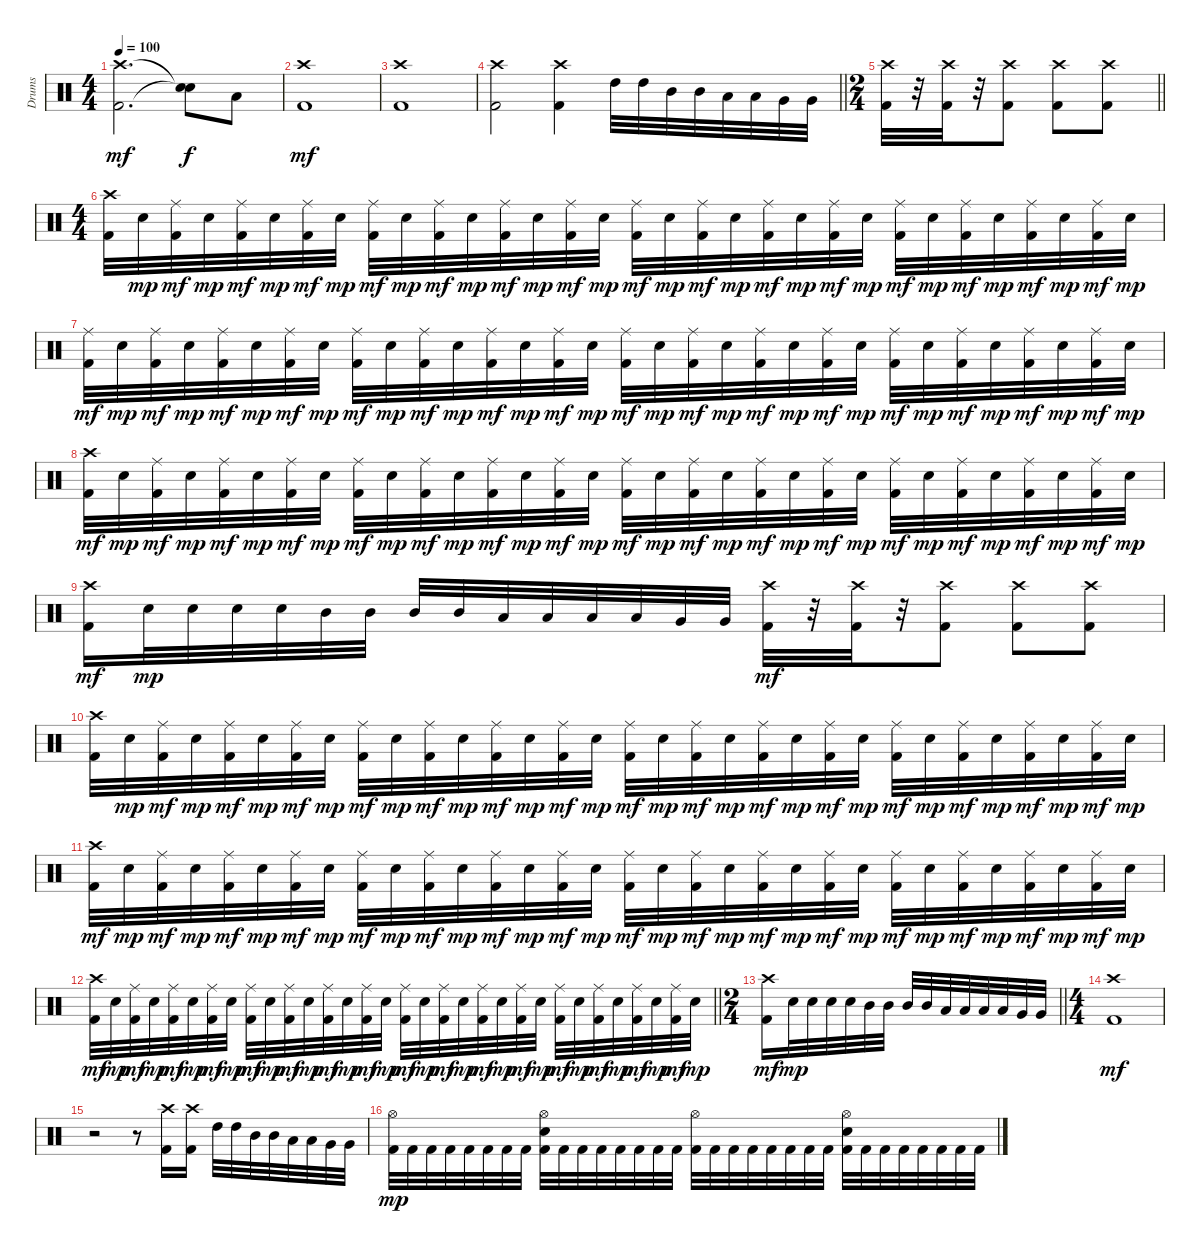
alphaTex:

\track ("Drums" "Drums") {instrument percussion}
\staff {score}
\articulation defaults
\ts (4 4)
\tempo 100
\clef neutral
\ks c
("Crash high (hit)" "Kick (hit) 2").2{d dy mf} ("Snare (hit)"{t} "Snare (hit)"{t}).8{dy f} "Low Tom (hit)".8 |
("Crash high (hit)" "Kick (hit) 2").1{dy mf} |
("Crash high (hit)" "Kick (hit) 2").1 |
\barLineRight lightlight
("Crash high (hit)" "Kick (hit) 2").2 ("Crash high (hit)" "Kick (hit) 2").4 "High Tom (hit)".32 "High Tom (hit)".32 "Mid Tom (hit)".32 "Mid Tom (hit)".32 "Low Tom (hit)".32 "Low Tom (hit)".32 "Very Low Tom (hit)".32 "Very Low Tom (hit)".32 |
\ts (2 4)
\barLineRight lightlight
("Crash high (hit)" "Kick (hit) 2").32 r.32 ("Crash high (hit)" "Kick (hit) 2").32 r.32 ("Crash high (hit)" "Kick (hit) 2").8 ("Crash high (hit)" "Kick (hit) 2").8 ("Crash high (hit)" "Kick (hit) 2").8 |
\ts (4 4)
("Crash high (hit)" "Kick (hit) 2").32 "Snare (hit) 2".32{dy mp} ("Ride (middle)" "Kick (hit) 2").32{dy mf} "Snare (hit) 2".32{dy mp} ("Ride (middle)" "Kick (hit) 2").32{dy mf} "Snare (hit) 2".32{dy mp} ("Ride (middle)" "Kick (hit) 2").32{dy mf} "Snare (hit) 2".32{dy mp} ("Ride (middle)" "Kick (hit) 2").32{dy mf} "Snare (hit) 2".32{dy mp} ("Ride (middle)" "Kick (hit) 2").32{dy mf} "Snare (hit) 2".32{dy mp} ("Ride (middle)" "Kick (hit) 2").32{dy mf} "Snare (hit) 2".32{dy mp} ("Ride (middle)" "Kick (hit) 2").32{dy mf} "Snare (hit) 2".32{dy mp} ("Ride (middle)" "Kick (hit) 2").32{dy mf} "Snare (hit) 2".32{dy mp} ("Ride (middle)" "Kick (hit) 2").32{dy mf} "Snare (hit) 2".32{dy mp} ("Ride (middle)" "Kick (hit) 2").32{dy mf} "Snare (hit) 2".32{dy mp} ("Ride (middle)" "Kick (hit) 2").32{dy mf} "Snare (hit) 2".32{dy mp} ("Ride (middle)" "Kick (hit) 2").32{dy mf} "Snare (hit) 2".32{dy mp} ("Ride (middle)" "Kick (hit) 2").32{dy mf} "Snare (hit) 2".32{dy mp} ("Ride (middle)" "Kick (hit) 2").32{dy mf} "Snare (hit) 2".32{dy mp} ("Ride (middle)" "Kick (hit) 2").32{dy mf} "Snare (hit) 2".32{dy mp} |
("Ride (middle)" "Kick (hit) 2").32{dy mf} "Snare (hit) 2".32{dy mp} ("Ride (middle)" "Kick (hit) 2").32{dy mf} "Snare (hit) 2".32{dy mp} ("Ride (middle)" "Kick (hit) 2").32{dy mf} "Snare (hit) 2".32{dy mp} ("Ride (middle)" "Kick (hit) 2").32{dy mf} "Snare (hit) 2".32{dy mp} ("Ride (middle)" "Kick (hit) 2").32{dy mf} "Snare (hit) 2".32{dy mp} ("Ride (middle)" "Kick (hit) 2").32{dy mf} "Snare (hit) 2".32{dy mp} ("Ride (middle)" "Kick (hit) 2").32{dy mf} "Snare (hit) 2".32{dy mp} ("Ride (middle)" "Kick (hit) 2").32{dy mf} "Snare (hit) 2".32{dy mp} ("Ride (middle)" "Kick (hit) 2").32{dy mf} "Snare (hit) 2".32{dy mp} ("Ride (middle)" "Kick (hit) 2").32{dy mf} "Snare (hit) 2".32{dy mp} ("Ride (middle)" "Kick (hit) 2").32{dy mf} "Snare (hit) 2".32{dy mp} ("Ride (middle)" "Kick (hit) 2").32{dy mf} "Snare (hit) 2".32{dy mp} ("Ride (middle)" "Kick (hit) 2").32{dy mf} "Snare (hit) 2".32{dy mp} ("Ride (middle)" "Kick (hit) 2").32{dy mf} "Snare (hit) 2".32{dy mp} ("Ride (middle)" "Kick (hit) 2").32{dy mf} "Snare (hit) 2".32{dy mp} ("Ride (middle)" "Kick (hit) 2").32{dy mf} "Snare (hit) 2".32{dy mp} |
("Crash high (hit)" "Kick (hit) 2").32{dy mf} "Snare (hit) 2".32{dy mp} ("Ride (middle)" "Kick (hit) 2").32{dy mf} "Snare (hit) 2".32{dy mp} ("Ride (middle)" "Kick (hit) 2").32{dy mf} "Snare (hit) 2".32{dy mp} ("Ride (middle)" "Kick (hit) 2").32{dy mf} "Snare (hit) 2".32{dy mp} ("Ride (middle)" "Kick (hit) 2").32{dy mf} "Snare (hit) 2".32{dy mp} ("Ride (middle)" "Kick (hit) 2").32{dy mf} "Snare (hit) 2".32{dy mp} ("Ride (middle)" "Kick (hit) 2").32{dy mf} "Snare (hit) 2".32{dy mp} ("Ride (middle)" "Kick (hit) 2").32{dy mf} "Snare (hit) 2".32{dy mp} ("Ride (middle)" "Kick (hit) 2").32{dy mf} "Snare (hit) 2".32{dy mp} ("Ride (middle)" "Kick (hit) 2").32{dy mf} "Snare (hit) 2".32{dy mp} ("Ride (middle)" "Kick (hit) 2").32{dy mf} "Snare (hit) 2".32{dy mp} ("Ride (middle)" "Kick (hit) 2").32{dy mf} "Snare (hit) 2".32{dy mp} ("Ride (middle)" "Kick (hit) 2").32{dy mf} "Snare (hit) 2".32{dy mp} ("Ride (middle)" "Kick (hit) 2").32{dy mf} "Snare (hit) 2".32{dy mp} ("Ride (middle)" "Kick (hit) 2").32{dy mf} "Snare (hit) 2".32{dy mp} ("Ride (middle)" "Kick (hit) 2").32{dy mf} "Snare (hit) 2".32{dy mp} |
("Crash high (hit)" "Kick (hit) 2").16{dy mf} "Snare (hit) 2".32{dy mp} "Snare (hit) 2".32 "Snare (hit) 2".32 "Snare (hit) 2".32 "Mid Tom (hit)".32 "Mid Tom (hit)".32 "Mid Tom (hit)".32 "Mid Tom (hit)".32 "Low Tom (hit)".32 "Low Tom (hit)".32 "Low Tom (hit)".32 "Low Tom (hit)".32 "Very Low Tom (hit)".32 "Very Low Tom (hit)".32 ("Crash high (hit)" "Kick (hit) 2").32{dy mf} r.32 ("Crash high (hit)" "Kick (hit) 2").32 r.32 ("Crash high (hit)" "Kick (hit) 2").8 ("Crash high (hit)" "Kick (hit) 2").8 ("Crash high (hit)" "Kick (hit) 2").8 |
("Crash high (hit)" "Kick (hit) 2").32 "Snare (hit) 2".32{dy mp} ("Ride (middle)" "Kick (hit) 2").32{dy mf} "Snare (hit) 2".32{dy mp} ("Ride (middle)" "Kick (hit) 2").32{dy mf} "Snare (hit) 2".32{dy mp} ("Ride (middle)" "Kick (hit) 2").32{dy mf} "Snare (hit) 2".32{dy mp} ("Ride (middle)" "Kick (hit) 2").32{dy mf} "Snare (hit) 2".32{dy mp} ("Ride (middle)" "Kick (hit) 2").32{dy mf} "Snare (hit) 2".32{dy mp} ("Ride (middle)" "Kick (hit) 2").32{dy mf} "Snare (hit) 2".32{dy mp} ("Ride (middle)" "Kick (hit) 2").32{dy mf} "Snare (hit) 2".32{dy mp} ("Ride (middle)" "Kick (hit) 2").32{dy mf} "Snare (hit) 2".32{dy mp} ("Ride (middle)" "Kick (hit) 2").32{dy mf} "Snare (hit) 2".32{dy mp} ("Ride (middle)" "Kick (hit) 2").32{dy mf} "Snare (hit) 2".32{dy mp} ("Ride (middle)" "Kick (hit) 2").32{dy mf} "Snare (hit) 2".32{dy mp} ("Ride (middle)" "Kick (hit) 2").32{dy mf} "Snare (hit) 2".32{dy mp} ("Ride (middle)" "Kick (hit) 2").32{dy mf} "Snare (hit) 2".32{dy mp} ("Ride (middle)" "Kick (hit) 2").32{dy mf} "Snare (hit) 2".32{dy mp} ("Ride (middle)" "Kick (hit) 2").32{dy mf} "Snare (hit) 2".32{dy mp} |
("Crash high (hit)" "Kick (hit) 2").32{dy mf} "Snare (hit) 2".32{dy mp} ("Ride (middle)" "Kick (hit) 2").32{dy mf} "Snare (hit) 2".32{dy mp} ("Ride (middle)" "Kick (hit) 2").32{dy mf} "Snare (hit) 2".32{dy mp} ("Ride (middle)" "Kick (hit) 2").32{dy mf} "Snare (hit) 2".32{dy mp} ("Ride (middle)" "Kick (hit) 2").32{dy mf} "Snare (hit) 2".32{dy mp} ("Ride (middle)" "Kick (hit) 2").32{dy mf} "Snare (hit) 2".32{dy mp} ("Ride (middle)" "Kick (hit) 2").32{dy mf} "Snare (hit) 2".32{dy mp} ("Ride (middle)" "Kick (hit) 2").32{dy mf} "Snare (hit) 2".32{dy mp} ("Ride (middle)" "Kick (hit) 2").32{dy mf} "Snare (hit) 2".32{dy mp} ("Ride (middle)" "Kick (hit) 2").32{dy mf} "Snare (hit) 2".32{dy mp} ("Ride (middle)" "Kick (hit) 2").32{dy mf} "Snare (hit) 2".32{dy mp} ("Ride (middle)" "Kick (hit) 2").32{dy mf} "Snare (hit) 2".32{dy mp} ("Ride (middle)" "Kick (hit) 2").32{dy mf} "Snare (hit) 2".32{dy mp} ("Ride (middle)" "Kick (hit) 2").32{dy mf} "Snare (hit) 2".32{dy mp} ("Ride (middle)" "Kick (hit) 2").32{dy mf} "Snare (hit) 2".32{dy mp} ("Ride (middle)" "Kick (hit) 2").32{dy mf} "Snare (hit) 2".32{dy mp} |
\barLineRight lightlight
("Crash high (hit)" "Kick (hit) 2").32{dy mf} "Snare (hit) 2".32{dy mp} ("Ride (middle)" "Kick (hit) 2").32{dy mf} "Snare (hit) 2".32{dy mp} ("Ride (middle)" "Kick (hit) 2").32{dy mf} "Snare (hit) 2".32{dy mp} ("Ride (middle)" "Kick (hit) 2").32{dy mf} "Snare (hit) 2".32{dy mp} ("Ride (middle)" "Kick (hit) 2").32{dy mf} "Snare (hit) 2".32{dy mp} ("Ride (middle)" "Kick (hit) 2").32{dy mf} "Snare (hit) 2".32{dy mp} ("Ride (middle)" "Kick (hit) 2").32{dy mf} "Snare (hit) 2".32{dy mp} ("Ride (middle)" "Kick (hit) 2").32{dy mf} "Snare (hit) 2".32{dy mp} ("Ride (middle)" "Kick (hit) 2").32{dy mf} "Snare (hit) 2".32{dy mp} ("Ride (middle)" "Kick (hit) 2").32{dy mf} "Snare (hit) 2".32{dy mp} ("Ride (middle)" "Kick (hit) 2").32{dy mf} "Snare (hit) 2".32{dy mp} ("Ride (middle)" "Kick (hit) 2").32{dy mf} "Snare (hit) 2".32{dy mp} ("Ride (middle)" "Kick (hit) 2").32{dy mf} "Snare (hit) 2".32{dy mp} ("Ride (middle)" "Kick (hit) 2").32{dy mf} "Snare (hit) 2".32{dy mp} ("Ride (middle)" "Kick (hit) 2").32{dy mf} "Snare (hit) 2".32{dy mp} ("Ride (middle)" "Kick (hit) 2").32{dy mf} "Snare (hit) 2".32{dy mp} |
\ts (2 4)
\barLineRight lightlight
("Crash high (hit)" "Kick (hit) 2").16{dy mf} "Snare (hit) 2".32{dy mp} "Snare (hit) 2".32 "Snare (hit) 2".32 "Snare (hit) 2".32 "Mid Tom (hit)".32 "Mid Tom (hit)".32 "Mid Tom (hit)".32 "Mid Tom (hit)".32 "Low Tom (hit)".32 "Low Tom (hit)".32 "Low Tom (hit)".32 "Low Tom (hit)".32 "Very Low Tom (hit)".32 "Very Low Tom (hit)".32 |
\ts (4 4)
("Crash high (hit)" "Kick (hit) 2").1{dy mf} |
r.2 r.8 ("Crash high (hit)" "Kick (hit) 2").16 ("Crash high (hit)" "Kick (hit) 2").16 "High Tom (hit)".32 "High Tom (hit)".32 "Mid Tom (hit)".32 "Mid Tom (hit)".32 "Low Tom (hit)".32 "Low Tom (hit)".32 "Very Low Tom (hit)".32 "Very Low Tom (hit)".32 |
("Hi-Hat (open)" "Kick (hit) 2").32{dy mp} "Kick (hit) 2".32 "Kick (hit) 2".32 "Kick (hit) 2".32 "Kick (hit) 2".32 "Kick (hit) 2".32 "Kick (hit) 2".32 "Kick (hit) 2".32 ("Hi-Hat (open)" "Snare (hit) 2" "Kick (hit) 2").32 "Kick (hit) 2".32 "Kick (hit) 2".32 "Kick (hit) 2".32 "Kick (hit) 2".32 "Kick (hit) 2".32 "Kick (hit) 2".32 "Kick (hit) 2".32 ("Hi-Hat (open)" "Kick (hit) 2").32 "Kick (hit) 2".32 "Kick (hit) 2".32 "Kick (hit) 2".32 "Kick (hit) 2".32 "Kick (hit) 2".32 "Kick (hit) 2".32 "Kick (hit) 2".32 ("Hi-Hat (open)" "Snare (hit) 2" "Kick (hit) 2").32 "Kick (hit) 2".32 "Kick (hit) 2".32 "Kick (hit) 2".32 "Kick (hit) 2".32 "Kick (hit) 2".32 "Kick (hit) 2".32 "Kick (hit) 2".32
